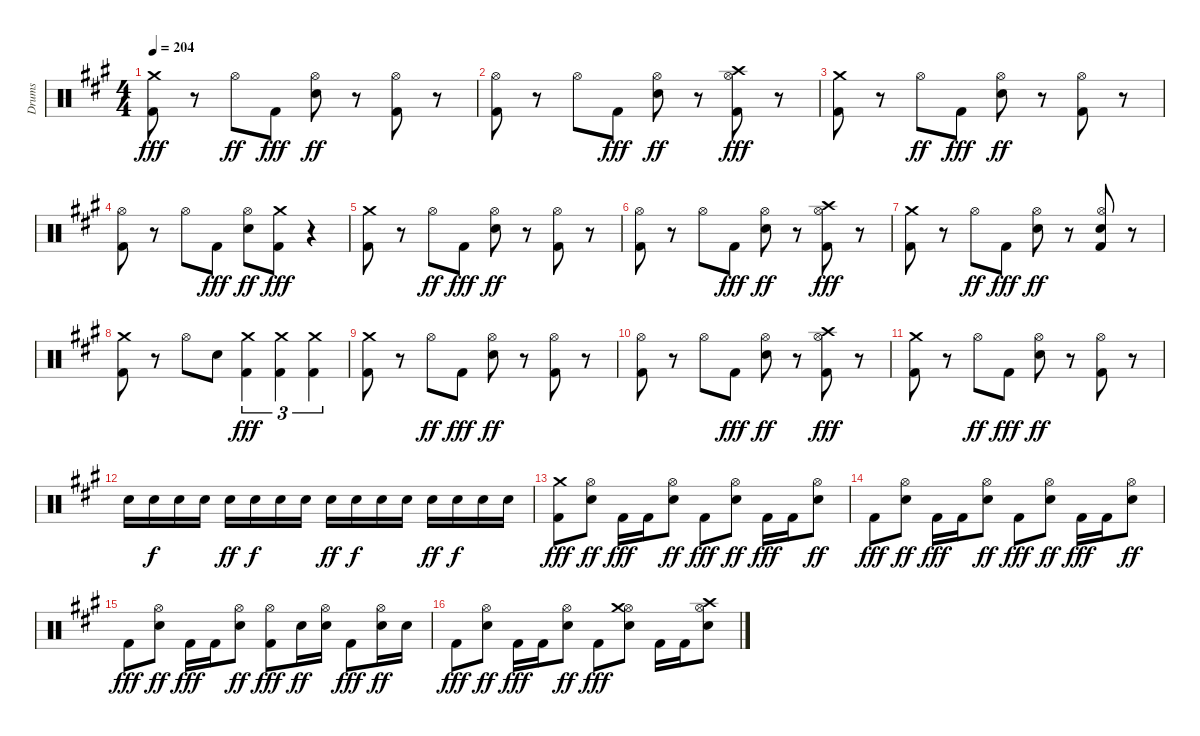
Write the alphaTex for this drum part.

\track ("Drums" "Drums") {instrument percussion}
\staff {score}
\articulation defaults
\ts (4 4)
\tempo 204
\clef neutral
\ks a
("Kick (hit) 2" "Crash medium (hit)").8{dy fff} r.8 "Hi-Hat (open)".8{dy ff} "Kick (hit) 2".8{dy fff} ("Electric Snare (hit)" "Hi-Hat (open)").8{dy ff} r.8 ("Kick (hit) 2" "Hi-Hat (open)").8 r.8 |
("Kick (hit) 2" "Hi-Hat (open)").8 r.8 "Hi-Hat (open)".8 "Kick (hit) 2".8{dy fff} ("Electric Snare (hit)" "Hi-Hat (open)").8{dy ff} r.8 ("Kick (hit) 2" "Hi-Hat (open)" "Crash high (hit)").8{dy fff} r.8 |
("Kick (hit) 2" "Crash medium (hit)").8 r.8 "Hi-Hat (open)".8{dy ff} "Kick (hit) 2".8{dy fff} ("Electric Snare (hit)" "Hi-Hat (open)").8{dy ff} r.8 ("Kick (hit) 2" "Hi-Hat (open)").8 r.8 |
("Kick (hit) 2" "Hi-Hat (open)").8 r.8 "Hi-Hat (open)".8 "Kick (hit) 2".8{dy fff} ("Electric Snare (hit)" "Hi-Hat (open)").8{dy ff} ("Kick (hit) 2" "Crash medium (hit)").8{dy fff} r.4 |
("Kick (hit) 2" "Crash medium (hit)").8 r.8 "Hi-Hat (open)".8{dy ff} "Kick (hit) 2".8{dy fff} ("Electric Snare (hit)" "Hi-Hat (open)").8{dy ff} r.8 ("Kick (hit) 2" "Hi-Hat (open)").8 r.8 |
("Kick (hit) 2" "Hi-Hat (open)").8 r.8 "Hi-Hat (open)".8 "Kick (hit) 2".8{dy fff} ("Electric Snare (hit)" "Hi-Hat (open)").8{dy ff} r.8 ("Kick (hit) 2" "Hi-Hat (open)" "Crash high (hit)").8{dy fff} r.8 |
("Kick (hit) 2" "Crash medium (hit)").8 r.8 "Hi-Hat (open)".8{dy ff} "Kick (hit) 2".8{dy fff} ("Electric Snare (hit)" "Hi-Hat (open)").8{dy ff} r.8 ("Kick (hit) 2" "Electric Snare (hit)" "Hi-Hat (open)").8 r.8 |
("Kick (hit) 2" "Crash medium (hit)").8 r.8 "Hi-Hat (open)".8 "Electric Snare (hit)".8 ("Kick (hit) 2" "Crash medium (hit)").4{tu (3 2) dy fff} ("Kick (hit) 2" "Crash medium (hit)").4{tu (3 2)} ("Kick (hit) 2" "Crash medium (hit)").4{tu (3 2)} |
("Kick (hit) 2" "Crash medium (hit)").8 r.8 "Hi-Hat (open)".8{dy ff} "Kick (hit) 2".8{dy fff} ("Electric Snare (hit)" "Hi-Hat (open)").8{dy ff} r.8 ("Kick (hit) 2" "Hi-Hat (open)").8 r.8 |
("Kick (hit) 2" "Hi-Hat (open)").8 r.8 "Hi-Hat (open)".8 "Kick (hit) 2".8{dy fff} ("Electric Snare (hit)" "Hi-Hat (open)").8{dy ff} r.8 ("Kick (hit) 2" "Hi-Hat (open)" "Crash high (hit)").8{dy fff} r.8 |
("Kick (hit) 2" "Crash medium (hit)").8 r.8 "Hi-Hat (open)".8{dy ff} "Kick (hit) 2".8{dy fff} ("Electric Snare (hit)" "Hi-Hat (open)").8{dy ff} r.8 ("Kick (hit) 2" "Hi-Hat (open)").8 r.8 |
"Electric Snare (hit)".16 "Electric Snare (hit)".16{dy f} "Electric Snare (hit)".16 "Electric Snare (hit)".16 "Electric Snare (hit)".16{dy ff} "Electric Snare (hit)".16{dy f} "Electric Snare (hit)".16 "Electric Snare (hit)".16 "Electric Snare (hit)".16{dy ff} "Electric Snare (hit)".16{dy f} "Electric Snare (hit)".16 "Electric Snare (hit)".16 "Electric Snare (hit)".16{dy ff} "Electric Snare (hit)".16{dy f} "Electric Snare (hit)".16 "Electric Snare (hit)".16 |
("Kick (hit) 2" "Crash medium (hit)").8{dy fff} ("Electric Snare (hit)" "Hi-Hat (open)").8{dy ff} "Kick (hit) 2".16{dy fff} "Kick (hit) 2".16 ("Electric Snare (hit)" "Hi-Hat (open)").8{dy ff} "Kick (hit) 2".8{dy fff} ("Electric Snare (hit)" "Hi-Hat (open)").8{dy ff} "Kick (hit) 2".16{dy fff} "Kick (hit) 2".16 ("Electric Snare (hit)" "Hi-Hat (open)").8{dy ff} |
"Kick (hit) 2".8{dy fff} ("Electric Snare (hit)" "Hi-Hat (open)").8{dy ff} "Kick (hit) 2".16{dy fff} "Kick (hit) 2".16 ("Electric Snare (hit)" "Hi-Hat (open)").8{dy ff} "Kick (hit) 2".8{dy fff} ("Electric Snare (hit)" "Hi-Hat (open)").8{dy ff} "Kick (hit) 2".16{dy fff} "Kick (hit) 2".16 ("Electric Snare (hit)" "Hi-Hat (open)").8{dy ff} |
"Kick (hit) 2".8{dy fff} ("Electric Snare (hit)" "Hi-Hat (open)").8{dy ff} "Kick (hit) 2".16{dy fff} "Kick (hit) 2".16 ("Electric Snare (hit)" "Hi-Hat (open)").8{dy ff} ("Kick (hit) 2" "Hi-Hat (open)").8{dy fff} "Electric Snare (hit)".16{dy ff} ("Electric Snare (hit)" "Hi-Hat (open)").16 "Kick (hit) 2".8{dy fff} ("Electric Snare (hit)" "Hi-Hat (open)").16{dy ff} "Electric Snare (hit)".16 |
"Kick (hit) 2".8{dy fff} ("Electric Snare (hit)" "Hi-Hat (open)").8{dy ff} "Kick (hit) 2".16{dy fff} "Kick (hit) 2".16 ("Electric Snare (hit)" "Hi-Hat (open)").8{dy ff} "Kick (hit) 2".8{dy fff} ("Electric Snare (hit)" "Hi-Hat (open)" "Crash medium (hit)").8 "Kick (hit) 2".16 "Kick (hit) 2".16 ("Electric Snare (hit)" "Hi-Hat (open)" "Crash high (hit)").8
